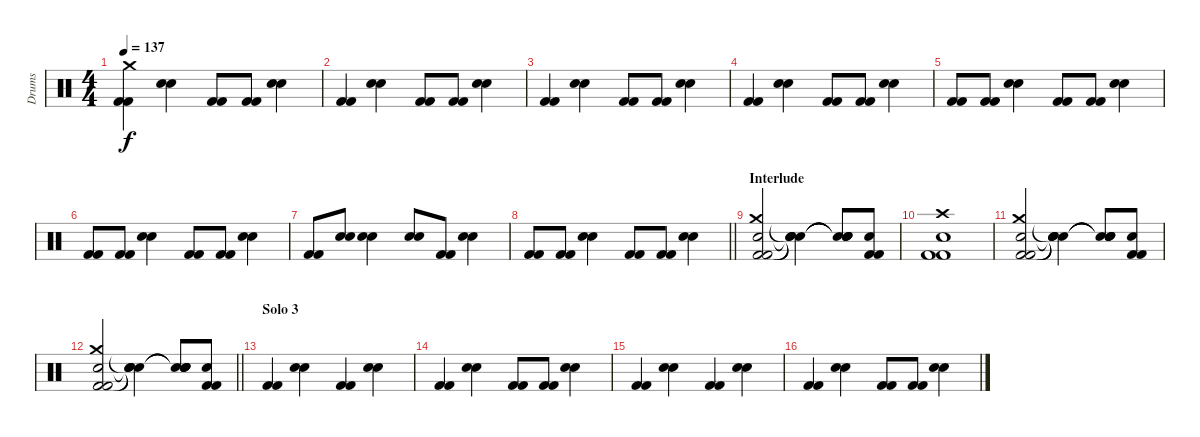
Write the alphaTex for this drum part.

\track ("Drums" "Drums") {instrument percussion}
\staff {score}
\articulation defaults
\ts (4 4)
\tempo 137
\clef neutral
\ks c
("Kick (hit) 2" "Kick (hit) 2" "Crash medium (hit)").4{dy f} ("Electric Snare (hit)" "Electric Snare (hit)").4 ("Kick (hit) 2" "Kick (hit) 2").8 ("Kick (hit) 2" "Kick (hit) 2").8 ("Electric Snare (hit)" "Electric Snare (hit)").4 |
("Kick (hit) 2" "Kick (hit) 2").4 ("Electric Snare (hit)" "Electric Snare (hit)").4 ("Kick (hit) 2" "Kick (hit) 2").8 ("Kick (hit) 2" "Kick (hit) 2").8 ("Electric Snare (hit)" "Electric Snare (hit)").4 |
("Kick (hit) 2" "Kick (hit) 2").4 ("Electric Snare (hit)" "Electric Snare (hit)").4 ("Kick (hit) 2" "Kick (hit) 2").8 ("Kick (hit) 2" "Kick (hit) 2").8 ("Electric Snare (hit)" "Electric Snare (hit)").4 |
("Kick (hit) 2" "Kick (hit) 2").4 ("Electric Snare (hit)" "Electric Snare (hit)").4 ("Kick (hit) 2" "Kick (hit) 2").8 ("Kick (hit) 2" "Kick (hit) 2").8 ("Electric Snare (hit)" "Electric Snare (hit)").4 |
("Kick (hit) 2" "Kick (hit) 2").8 ("Kick (hit) 2" "Kick (hit) 2").8 ("Electric Snare (hit)" "Electric Snare (hit)").4 ("Kick (hit) 2" "Kick (hit) 2").8 ("Kick (hit) 2" "Kick (hit) 2").8 ("Electric Snare (hit)" "Electric Snare (hit)").4 |
("Kick (hit) 2" "Kick (hit) 2").8 ("Kick (hit) 2" "Kick (hit) 2").8 ("Electric Snare (hit)" "Electric Snare (hit)").4 ("Kick (hit) 2" "Kick (hit) 2").8 ("Kick (hit) 2" "Kick (hit) 2").8 ("Electric Snare (hit)" "Electric Snare (hit)").4 |
("Kick (hit) 2" "Kick (hit) 2").8 ("Electric Snare (hit)" "Electric Snare (hit)").8 ("Electric Snare (hit)" "Electric Snare (hit)").4 ("Electric Snare (hit)" "Electric Snare (hit)").8 ("Kick (hit) 2" "Kick (hit) 2").8 ("Electric Snare (hit)" "Electric Snare (hit)").4 |
\barLineRight lightlight
("Kick (hit) 2" "Kick (hit) 2").8 ("Kick (hit) 2" "Kick (hit) 2").8 ("Electric Snare (hit)" "Electric Snare (hit)").4 ("Kick (hit) 2" "Kick (hit) 2").8 ("Kick (hit) 2" "Kick (hit) 2").8 ("Electric Snare (hit)" "Electric Snare (hit)").4 |
\section ("" "Interlude")
("Kick (hit) 2" "Kick (hit) 2" "Electric Snare (hit)" "Crash medium (hit)").2 ("Snare (hit)"{t} "Snare (hit)"{t} "Snare (hit)"{t} "Snare (hit)"{t}).4 ("Snare (hit)"{t} "Snare (hit)"{t} "Snare (hit)"{t} "Snare (hit)"{t}).8 ("Kick (hit) 2" "Kick (hit) 2" "Electric Snare (hit)").8 |
("Kick (hit) 2" "Kick (hit) 2" "Electric Snare (hit)" "Crash high (hit)").1 |
("Kick (hit) 2" "Kick (hit) 2" "Electric Snare (hit)" "Crash medium (hit)").2 ("Snare (hit)"{t} "Snare (hit)"{t} "Snare (hit)"{t} "Snare (hit)"{t}).4 ("Snare (hit)"{t} "Snare (hit)"{t} "Snare (hit)"{t} "Snare (hit)"{t}).8 ("Kick (hit) 2" "Kick (hit) 2" "Electric Snare (hit)").8 |
\barLineRight lightlight
("Kick (hit) 2" "Kick (hit) 2" "Electric Snare (hit)" "Crash medium (hit)").2 ("Snare (hit)"{t} "Snare (hit)"{t} "Snare (hit)"{t} "Snare (hit)"{t}).4 ("Electric Snare (hit)" "Snare (hit)"{t} "Snare (hit)"{t} "Snare (hit)"{t}).8 ("Kick (hit) 2" "Kick (hit) 2" "Electric Snare (hit)").8 |
\section ("" "Solo 3")
("Kick (hit) 2" "Kick (hit) 2").4 ("Electric Snare (hit)" "Electric Snare (hit)").4 ("Kick (hit) 2" "Kick (hit) 2").4 ("Electric Snare (hit)" "Electric Snare (hit)").4 |
("Kick (hit) 2" "Kick (hit) 2").4 ("Electric Snare (hit)" "Electric Snare (hit)").4 ("Kick (hit) 2" "Kick (hit) 2").8 ("Kick (hit) 2" "Kick (hit) 2").8 ("Electric Snare (hit)" "Electric Snare (hit)").4 |
("Kick (hit) 2" "Kick (hit) 2").4 ("Electric Snare (hit)" "Electric Snare (hit)").4 ("Kick (hit) 2" "Kick (hit) 2").4 ("Electric Snare (hit)" "Electric Snare (hit)").4 |
("Kick (hit) 2" "Kick (hit) 2").4 ("Electric Snare (hit)" "Electric Snare (hit)").4 ("Kick (hit) 2" "Kick (hit) 2").8 ("Kick (hit) 2" "Kick (hit) 2").8 ("Electric Snare (hit)" "Electric Snare (hit)").4
